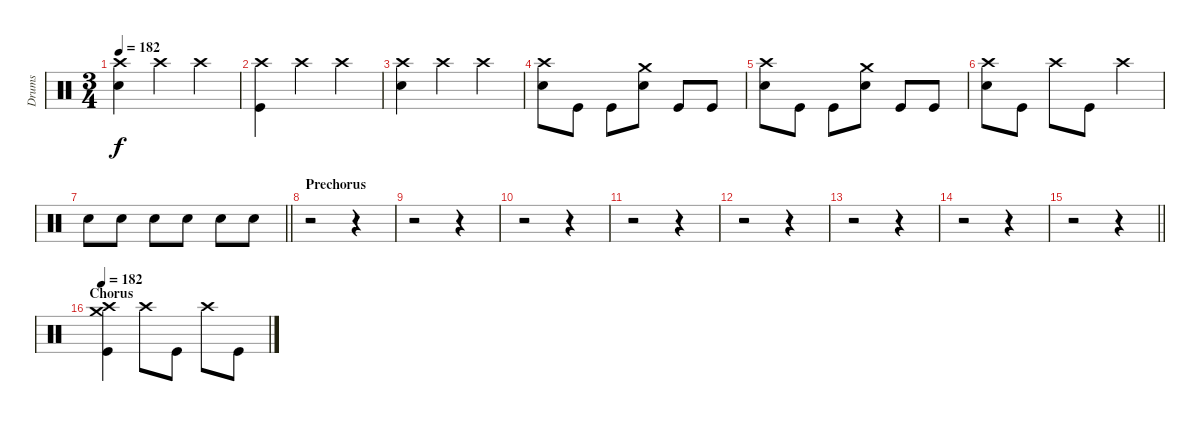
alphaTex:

\track ("Drums" "Drums") {instrument percussion}
\staff {score}
\articulation defaults
\ts (3 4)
\tempo 182
\clef neutral
\ks c
("Crash high (hit)" "Electric Snare (hit)").4{dy f} "Crash high (hit)".4 "Crash high (hit)".4 |
("Crash high (hit)" "Kick (hit)").4 "Crash high (hit)".4 "Crash high (hit)".4 |
("Crash high (hit)" "Electric Snare (hit)").4 "Crash high (hit)".4 "Crash high (hit)".4 |
("Crash high (hit)" "Electric Snare (hit)").8 "Kick (hit)".8 "Kick (hit)".8 ("Crash medium (hit)" "Electric Snare (hit)").8 "Kick (hit)".8 "Kick (hit)".8 |
("Crash high (hit)" "Electric Snare (hit)").8 "Kick (hit)".8 "Kick (hit)".8 ("Crash medium (hit)" "Electric Snare (hit)").8 "Kick (hit)".8 "Kick (hit)".8 |
("Crash high (hit)" "Electric Snare (hit)").8 "Kick (hit)".8 "Crash high (hit)".8 "Kick (hit)".8 "Crash high (hit)".4 |
\barLineRight lightlight "Electric Snare (hit)".8 "Electric Snare (hit)".8 "Electric Snare (hit)".8 "Electric Snare (hit)".8 "Electric Snare (hit)".8 "Electric Snare (hit)".8
|
\section ("" "Prechorus")
r.2 r.4 |
r.2 r.4 |
r.2 r.4 |
r.2 r.4 |
r.2 r.4 |
r.2 r.4 |
r.2 r.4 |
\barLineRight lightlight
r.2 r.4 |
\section ("" "Chorus")
\tempo 182
("Crash high (hit)" "Crash medium (hit)" "Kick (hit)").4 "Crash high (hit)".8 "Kick (hit)".8 "Crash high (hit)".8 "Kick (hit)".8
